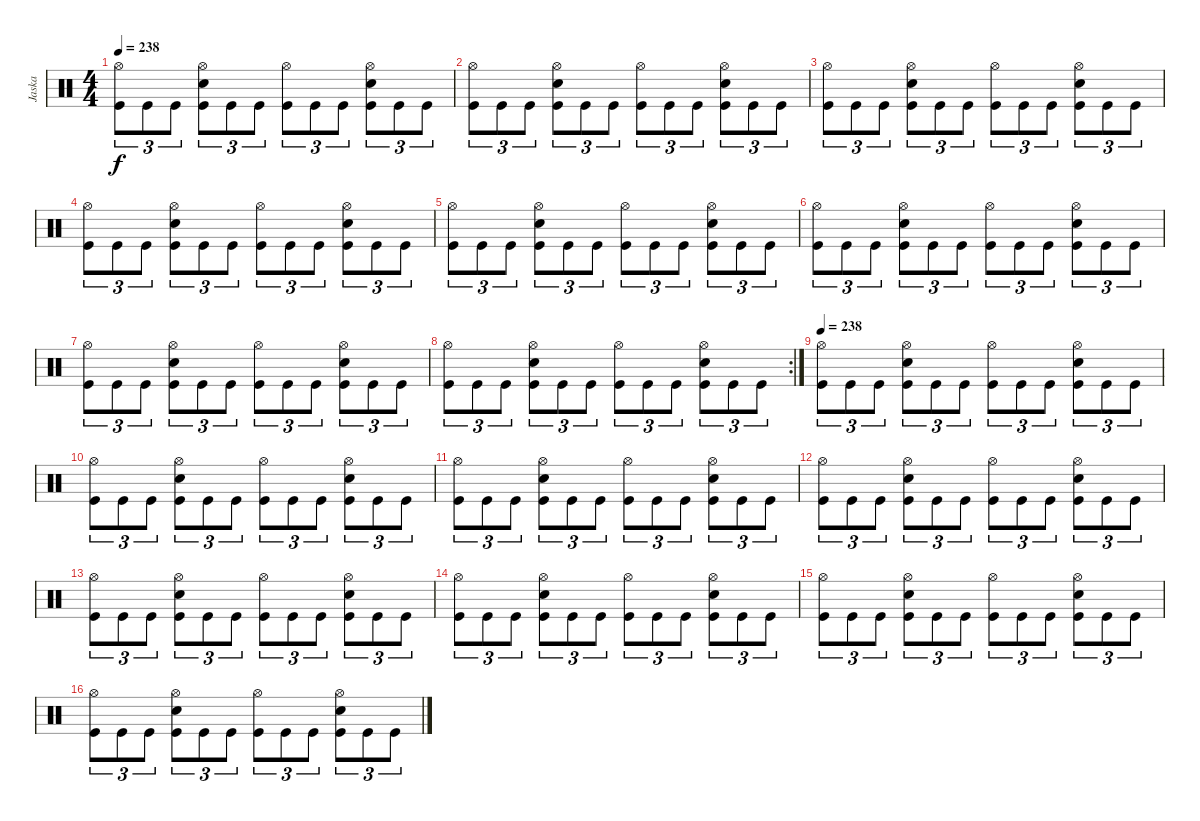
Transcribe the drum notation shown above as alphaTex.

\track ("Jaska" "Jaska") {instrument percussion}
\staff {score}
\articulation defaults
\ts (4 4)
\tempo 238
\clef neutral
\ks c
("Hi-Hat (open)" "Kick (hit)").8{tu (3 2) dy f} "Kick (hit)".8{tu (3 2)} "Kick (hit)".8{tu (3 2)} ("Hi-Hat (open)" "Snare (hit) 2" "Kick (hit)").8{tu (3 2)} "Kick (hit)".8{tu (3 2)} "Kick (hit)".8{tu (3 2)} ("Hi-Hat (open)" "Kick (hit)").8{tu (3 2)} "Kick (hit)".8{tu (3 2)} "Kick (hit)".8{tu (3 2)} ("Hi-Hat (open)" "Snare (hit) 2" "Kick (hit)").8{tu (3 2)} "Kick (hit)".8{tu (3 2)} "Kick (hit)".8{tu (3 2)} |
("Hi-Hat (open)" "Kick (hit)").8{tu (3 2)} "Kick (hit)".8{tu (3 2)} "Kick (hit)".8{tu (3 2)} ("Hi-Hat (open)" "Snare (hit) 2" "Kick (hit)").8{tu (3 2)} "Kick (hit)".8{tu (3 2)} "Kick (hit)".8{tu (3 2)} ("Hi-Hat (open)" "Kick (hit)").8{tu (3 2)} "Kick (hit)".8{tu (3 2)} "Kick (hit)".8{tu (3 2)} ("Hi-Hat (open)" "Snare (hit) 2" "Kick (hit)").8{tu (3 2)} "Kick (hit)".8{tu (3 2)} "Kick (hit)".8{tu (3 2)} |
("Hi-Hat (open)" "Kick (hit)").8{tu (3 2)} "Kick (hit)".8{tu (3 2)} "Kick (hit)".8{tu (3 2)} ("Hi-Hat (open)" "Snare (hit) 2" "Kick (hit)").8{tu (3 2)} "Kick (hit)".8{tu (3 2)} "Kick (hit)".8{tu (3 2)} ("Hi-Hat (open)" "Kick (hit)").8{tu (3 2)} "Kick (hit)".8{tu (3 2)} "Kick (hit)".8{tu (3 2)} ("Hi-Hat (open)" "Snare (hit) 2" "Kick (hit)").8{tu (3 2)} "Kick (hit)".8{tu (3 2)} "Kick (hit)".8{tu (3 2)} |
("Hi-Hat (open)" "Kick (hit)").8{tu (3 2)} "Kick (hit)".8{tu (3 2)} "Kick (hit)".8{tu (3 2)} ("Hi-Hat (open)" "Snare (hit) 2" "Kick (hit)").8{tu (3 2)} "Kick (hit)".8{tu (3 2)} "Kick (hit)".8{tu (3 2)} ("Hi-Hat (open)" "Kick (hit)").8{tu (3 2)} "Kick (hit)".8{tu (3 2)} "Kick (hit)".8{tu (3 2)} ("Hi-Hat (open)" "Snare (hit) 2" "Kick (hit)").8{tu (3 2)} "Kick (hit)".8{tu (3 2)} "Kick (hit)".8{tu (3 2)} |
("Hi-Hat (open)" "Kick (hit)").8{tu (3 2)} "Kick (hit)".8{tu (3 2)} "Kick (hit)".8{tu (3 2)} ("Hi-Hat (open)" "Snare (hit) 2" "Kick (hit)").8{tu (3 2)} "Kick (hit)".8{tu (3 2)} "Kick (hit)".8{tu (3 2)} ("Hi-Hat (open)" "Kick (hit)").8{tu (3 2)} "Kick (hit)".8{tu (3 2)} "Kick (hit)".8{tu (3 2)} ("Hi-Hat (open)" "Snare (hit) 2" "Kick (hit)").8{tu (3 2)} "Kick (hit)".8{tu (3 2)} "Kick (hit)".8{tu (3 2)} |
("Hi-Hat (open)" "Kick (hit)").8{tu (3 2)} "Kick (hit)".8{tu (3 2)} "Kick (hit)".8{tu (3 2)} ("Hi-Hat (open)" "Snare (hit) 2" "Kick (hit)").8{tu (3 2)} "Kick (hit)".8{tu (3 2)} "Kick (hit)".8{tu (3 2)} ("Hi-Hat (open)" "Kick (hit)").8{tu (3 2)} "Kick (hit)".8{tu (3 2)} "Kick (hit)".8{tu (3 2)} ("Hi-Hat (open)" "Snare (hit) 2" "Kick (hit)").8{tu (3 2)} "Kick (hit)".8{tu (3 2)} "Kick (hit)".8{tu (3 2)} |
("Hi-Hat (open)" "Kick (hit)").8{tu (3 2)} "Kick (hit)".8{tu (3 2)} "Kick (hit)".8{tu (3 2)} ("Hi-Hat (open)" "Snare (hit) 2" "Kick (hit)").8{tu (3 2)} "Kick (hit)".8{tu (3 2)} "Kick (hit)".8{tu (3 2)} ("Hi-Hat (open)" "Kick (hit)").8{tu (3 2)} "Kick (hit)".8{tu (3 2)} "Kick (hit)".8{tu (3 2)} ("Hi-Hat (open)" "Snare (hit) 2" "Kick (hit)").8{tu (3 2)} "Kick (hit)".8{tu (3 2)} "Kick (hit)".8{tu (3 2)} |
\rc 2
("Hi-Hat (open)" "Kick (hit)").8{tu (3 2)} "Kick (hit)".8{tu (3 2)} "Kick (hit)".8{tu (3 2)} ("Hi-Hat (open)" "Snare (hit) 2" "Kick (hit)").8{tu (3 2)} "Kick (hit)".8{tu (3 2)} "Kick (hit)".8{tu (3 2)} ("Hi-Hat (open)" "Kick (hit)").8{tu (3 2)} "Kick (hit)".8{tu (3 2)} "Kick (hit)".8{tu (3 2)} ("Hi-Hat (open)" "Snare (hit) 2" "Kick (hit)").8{tu (3 2)} "Kick (hit)".8{tu (3 2)} "Kick (hit)".8{tu (3 2)} |
\tempo 238
("Hi-Hat (open)" "Kick (hit)").8{tu (3 2)} "Kick (hit)".8{tu (3 2)} "Kick (hit)".8{tu (3 2)} ("Hi-Hat (open)" "Snare (hit) 2" "Kick (hit)").8{tu (3 2)} "Kick (hit)".8{tu (3 2)} "Kick (hit)".8{tu (3 2)} ("Hi-Hat (open)" "Kick (hit)").8{tu (3 2)} "Kick (hit)".8{tu (3 2)} "Kick (hit)".8{tu (3 2)} ("Hi-Hat (open)" "Snare (hit) 2" "Kick (hit)").8{tu (3 2)} "Kick (hit)".8{tu (3 2)} "Kick (hit)".8{tu (3 2)} |
("Hi-Hat (open)" "Kick (hit)").8{tu (3 2)} "Kick (hit)".8{tu (3 2)} "Kick (hit)".8{tu (3 2)} ("Hi-Hat (open)" "Snare (hit) 2" "Kick (hit)").8{tu (3 2)} "Kick (hit)".8{tu (3 2)} "Kick (hit)".8{tu (3 2)} ("Hi-Hat (open)" "Kick (hit)").8{tu (3 2)} "Kick (hit)".8{tu (3 2)} "Kick (hit)".8{tu (3 2)} ("Hi-Hat (open)" "Snare (hit) 2" "Kick (hit)").8{tu (3 2)} "Kick (hit)".8{tu (3 2)} "Kick (hit)".8{tu (3 2)} |
("Hi-Hat (open)" "Kick (hit)").8{tu (3 2)} "Kick (hit)".8{tu (3 2)} "Kick (hit)".8{tu (3 2)} ("Hi-Hat (open)" "Snare (hit) 2" "Kick (hit)").8{tu (3 2)} "Kick (hit)".8{tu (3 2)} "Kick (hit)".8{tu (3 2)} ("Hi-Hat (open)" "Kick (hit)").8{tu (3 2)} "Kick (hit)".8{tu (3 2)} "Kick (hit)".8{tu (3 2)} ("Hi-Hat (open)" "Snare (hit) 2" "Kick (hit)").8{tu (3 2)} "Kick (hit)".8{tu (3 2)} "Kick (hit)".8{tu (3 2)} |
("Hi-Hat (open)" "Kick (hit)").8{tu (3 2)} "Kick (hit)".8{tu (3 2)} "Kick (hit)".8{tu (3 2)} ("Hi-Hat (open)" "Snare (hit) 2" "Kick (hit)").8{tu (3 2)} "Kick (hit)".8{tu (3 2)} "Kick (hit)".8{tu (3 2)} ("Hi-Hat (open)" "Kick (hit)").8{tu (3 2)} "Kick (hit)".8{tu (3 2)} "Kick (hit)".8{tu (3 2)} ("Hi-Hat (open)" "Snare (hit) 2" "Kick (hit)").8{tu (3 2)} "Kick (hit)".8{tu (3 2)} "Kick (hit)".8{tu (3 2)} |
("Hi-Hat (open)" "Kick (hit)").8{tu (3 2)} "Kick (hit)".8{tu (3 2)} "Kick (hit)".8{tu (3 2)} ("Hi-Hat (open)" "Snare (hit) 2" "Kick (hit)").8{tu (3 2)} "Kick (hit)".8{tu (3 2)} "Kick (hit)".8{tu (3 2)} ("Hi-Hat (open)" "Kick (hit)").8{tu (3 2)} "Kick (hit)".8{tu (3 2)} "Kick (hit)".8{tu (3 2)} ("Hi-Hat (open)" "Snare (hit) 2" "Kick (hit)").8{tu (3 2)} "Kick (hit)".8{tu (3 2)} "Kick (hit)".8{tu (3 2)} |
("Hi-Hat (open)" "Kick (hit)").8{tu (3 2)} "Kick (hit)".8{tu (3 2)} "Kick (hit)".8{tu (3 2)} ("Hi-Hat (open)" "Snare (hit) 2" "Kick (hit)").8{tu (3 2)} "Kick (hit)".8{tu (3 2)} "Kick (hit)".8{tu (3 2)} ("Hi-Hat (open)" "Kick (hit)").8{tu (3 2)} "Kick (hit)".8{tu (3 2)} "Kick (hit)".8{tu (3 2)} ("Hi-Hat (open)" "Snare (hit) 2" "Kick (hit)").8{tu (3 2)} "Kick (hit)".8{tu (3 2)} "Kick (hit)".8{tu (3 2)} |
("Hi-Hat (open)" "Kick (hit)").8{tu (3 2)} "Kick (hit)".8{tu (3 2)} "Kick (hit)".8{tu (3 2)} ("Hi-Hat (open)" "Snare (hit) 2" "Kick (hit)").8{tu (3 2)} "Kick (hit)".8{tu (3 2)} "Kick (hit)".8{tu (3 2)} ("Hi-Hat (open)" "Kick (hit)").8{tu (3 2)} "Kick (hit)".8{tu (3 2)} "Kick (hit)".8{tu (3 2)} ("Hi-Hat (open)" "Snare (hit) 2" "Kick (hit)").8{tu (3 2)} "Kick (hit)".8{tu (3 2)} "Kick (hit)".8{tu (3 2)} |
("Hi-Hat (open)" "Kick (hit)").8{tu (3 2)} "Kick (hit)".8{tu (3 2)} "Kick (hit)".8{tu (3 2)} ("Hi-Hat (open)" "Snare (hit) 2" "Kick (hit)").8{tu (3 2)} "Kick (hit)".8{tu (3 2)} "Kick (hit)".8{tu (3 2)} ("Hi-Hat (open)" "Kick (hit)").8{tu (3 2)} "Kick (hit)".8{tu (3 2)} "Kick (hit)".8{tu (3 2)} ("Hi-Hat (open)" "Snare (hit) 2" "Kick (hit)").8{tu (3 2)} "Kick (hit)".8{tu (3 2)} "Kick (hit)".8{tu (3 2)}
